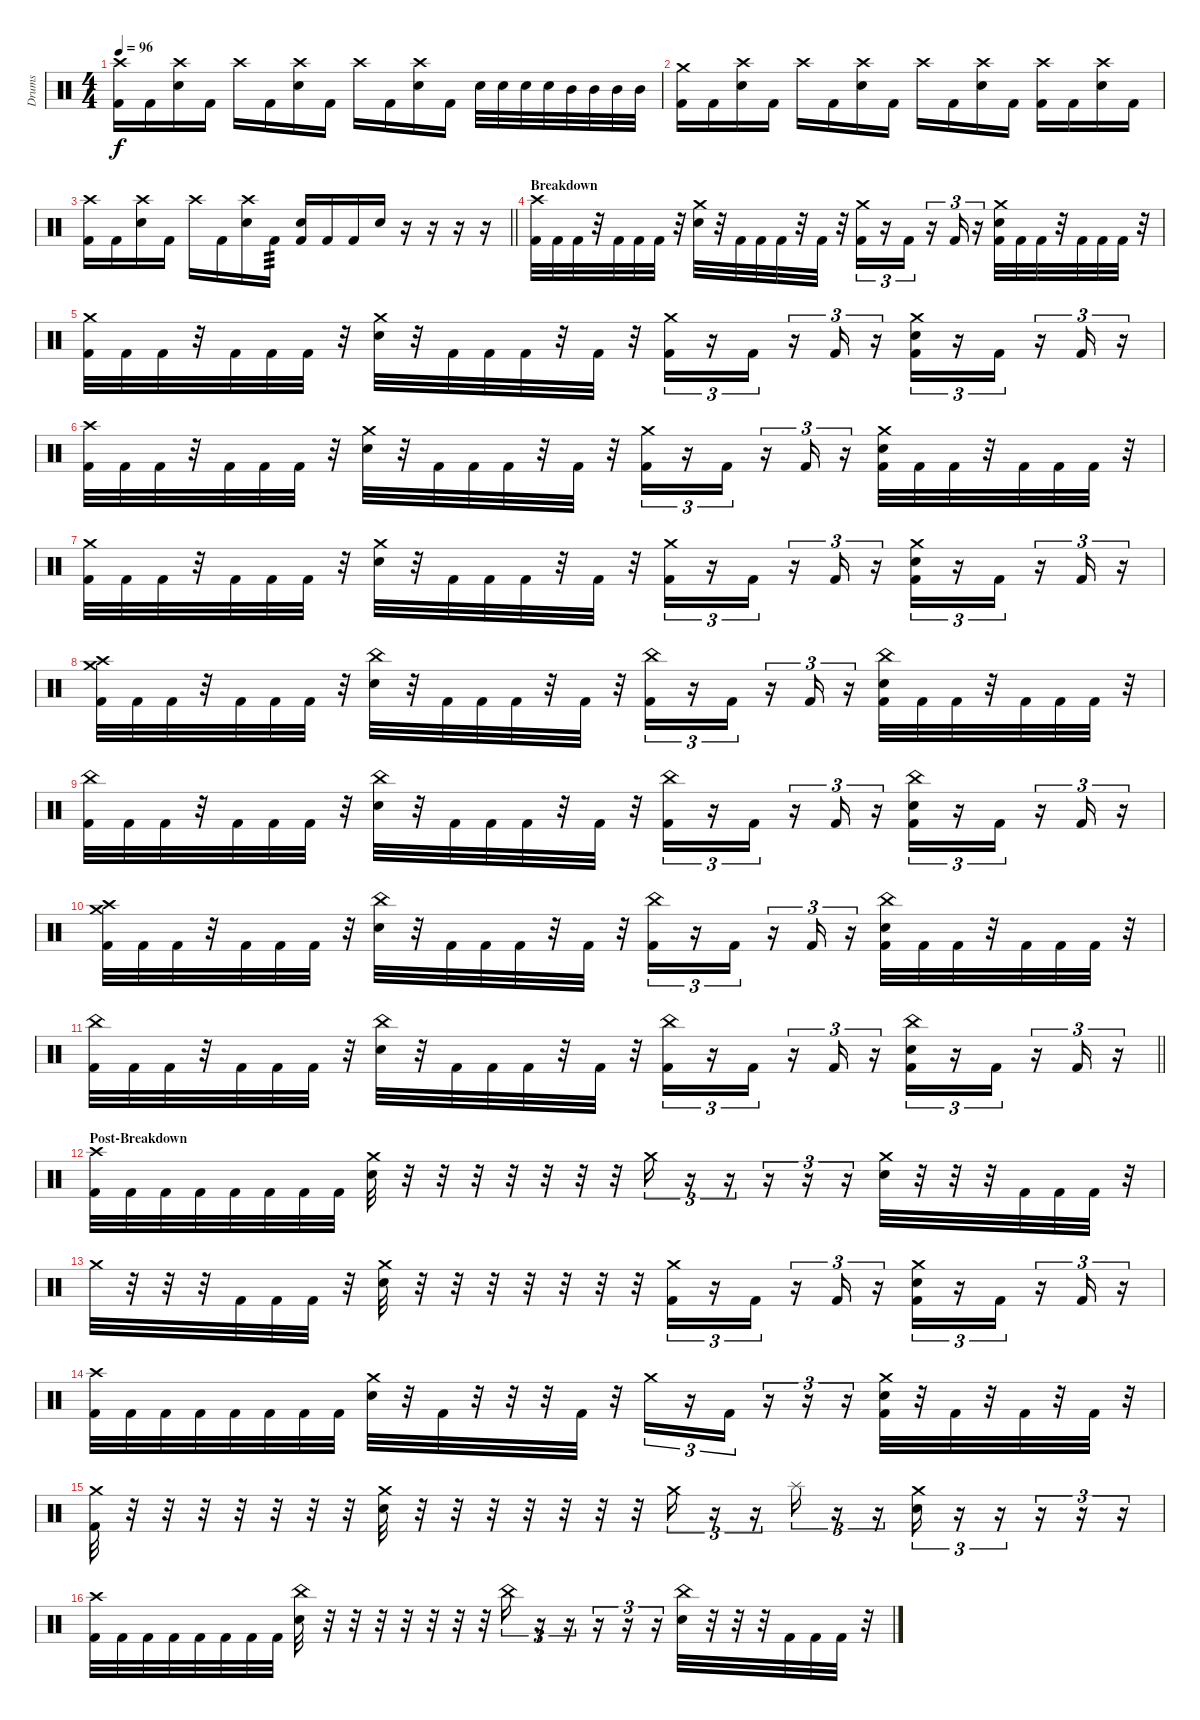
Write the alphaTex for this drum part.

\track ("Drums" "Drums") {instrument percussion}
\staff {score}
\articulation defaults
\ts (4 4)
\tempo 96
\clef neutral
\ks c
("Crash high (hit)" "Kick (hit) 2").16{dy f} "Kick (hit) 2".16 ("Crash high (hit)" "Snare (hit) 2").16 "Kick (hit) 2".16 "Crash high (hit)".16 "Kick (hit) 2".16 ("Crash high (hit)" "Snare (hit) 2").16 "Kick (hit) 2".16 "Crash high (hit)".16 "Kick (hit) 2".16 ("Crash high (hit)" "Snare (hit) 2").16 "Kick (hit) 2".16 "Snare (hit) 2".32 "Snare (hit) 2".32 "Snare (hit) 2".32 "Snare (hit) 2".32 "Mid Tom (hit)".32 "Mid Tom (hit)".32 "Mid Tom (hit)".32 "Mid Tom (hit)".32 |
("Crash medium (hit)" "Kick (hit) 2").16 "Kick (hit) 2".16 ("Crash high (hit)" "Snare (hit) 2").16 "Kick (hit) 2".16 "Crash high (hit)".16 "Kick (hit) 2".16 ("Crash high (hit)" "Snare (hit) 2").16 "Kick (hit) 2".16 "Crash high (hit)".16 "Kick (hit) 2".16 ("Crash high (hit)" "Snare (hit) 2").16 "Kick (hit) 2".16 ("Crash high (hit)" "Kick (hit) 2").16 "Kick (hit) 2".16 ("Crash high (hit)" "Snare (hit) 2").16 "Kick (hit) 2".16 |
\barLineRight lightlight
("Crash high (hit)" "Kick (hit) 2").16 "Kick (hit) 2".16 ("Crash high (hit)" "Snare (hit) 2").16 "Kick (hit) 2".16 "Crash high (hit)".16 "Kick (hit) 2".16 ("Crash high (hit)" "Snare (hit) 2").16 "Kick (hit) 2".16{tp 3} ("Snare (hit) 2" "Kick (hit) 2").16 "Kick (hit) 2".16 "Kick (hit) 2".16 "Snare (hit) 2".16 r.16 r.16 r.16 r.16 |
\section ("" "Breakdown")
("Crash high (hit)" "Kick (hit) 2").32 "Kick (hit) 2".32 "Kick (hit) 2".32 r.32 "Kick (hit) 2".32 "Kick (hit) 2".32 "Kick (hit) 2".32 r.32 ("Crash medium (hit)" "Snare (hit) 2").32 r.32 "Kick (hit) 2".32 "Kick (hit) 2".32 "Kick (hit) 2".32 r.32 "Kick (hit) 2".32 r.32 ("Crash medium (hit)" "Kick (hit) 2").16{tu (3 2)} r.16{tu (3 2)} "Kick (hit) 2".16{tu (3 2)} r.16{tu (3 2)} "Kick (hit) 2".16{tu (3 2)} r.16{tu (3 2)} ("Crash medium (hit)" "Snare (hit) 2" "Kick (hit) 2").32 "Kick (hit) 2".32 "Kick (hit) 2".32 r.32 "Kick (hit) 2".32 "Kick (hit) 2".32 "Kick (hit) 2".32 r.32 |
("Crash medium (hit)" "Kick (hit) 2").32 "Kick (hit) 2".32 "Kick (hit) 2".32 r.32 "Kick (hit) 2".32 "Kick (hit) 2".32 "Kick (hit) 2".32 r.32 ("Crash medium (hit)" "Snare (hit) 2").32 r.32 "Kick (hit) 2".32 "Kick (hit) 2".32 "Kick (hit) 2".32 r.32 "Kick (hit) 2".32 r.32 ("Crash medium (hit)" "Kick (hit) 2").16{tu (3 2)} r.16{tu (3 2)} "Kick (hit) 2".16{tu (3 2)} r.16{tu (3 2)} "Kick (hit) 2".16{tu (3 2)} r.16{tu (3 2)} ("Crash medium (hit)" "Snare (hit) 2" "Kick (hit) 2").16{tu (3 2)} r.16{tu (3 2)} "Kick (hit) 2".16{tu (3 2)} r.16{tu (3 2)} "Kick (hit) 2".16{tu (3 2)} r.16{tu (3 2)} |
("Crash high (hit)" "Kick (hit) 2").32 "Kick (hit) 2".32 "Kick (hit) 2".32 r.32 "Kick (hit) 2".32 "Kick (hit) 2".32 "Kick (hit) 2".32 r.32 ("Crash medium (hit)" "Snare (hit) 2").32 r.32 "Kick (hit) 2".32 "Kick (hit) 2".32 "Kick (hit) 2".32 r.32 "Kick (hit) 2".32 r.32 ("Crash medium (hit)" "Kick (hit) 2").16{tu (3 2)} r.16{tu (3 2)} "Kick (hit) 2".16{tu (3 2)} r.16{tu (3 2)} "Kick (hit) 2".16{tu (3 2)} r.16{tu (3 2)} ("Crash medium (hit)" "Snare (hit) 2" "Kick (hit) 2").32 "Kick (hit) 2".32 "Kick (hit) 2".32 r.32 "Kick (hit) 2".32 "Kick (hit) 2".32 "Kick (hit) 2".32 r.32 |
("Crash medium (hit)" "Kick (hit) 2").32 "Kick (hit) 2".32 "Kick (hit) 2".32 r.32 "Kick (hit) 2".32 "Kick (hit) 2".32 "Kick (hit) 2".32 r.32 ("Crash medium (hit)" "Snare (hit) 2").32 r.32 "Kick (hit) 2".32 "Kick (hit) 2".32 "Kick (hit) 2".32 r.32 "Kick (hit) 2".32 r.32 ("Crash medium (hit)" "Kick (hit) 2").16{tu (3 2)} r.16{tu (3 2)} "Kick (hit) 2".16{tu (3 2)} r.16{tu (3 2)} "Kick (hit) 2".16{tu (3 2)} r.16{tu (3 2)} ("Crash medium (hit)" "Snare (hit) 2" "Kick (hit) 2").16{tu (3 2)} r.16{tu (3 2)} "Kick (hit) 2".16{tu (3 2)} r.16{tu (3 2)} "Kick (hit) 2".16{tu (3 2)} r.16{tu (3 2)} |
("Crash high (hit)" "Crash medium (hit)" "Kick (hit) 2").32 "Kick (hit) 2".32 "Kick (hit) 2".32 r.32 "Kick (hit) 2".32 "Kick (hit) 2".32 "Kick (hit) 2".32 r.32 ("China (hit)" "Snare (hit) 2").32 r.32 "Kick (hit) 2".32 "Kick (hit) 2".32 "Kick (hit) 2".32 r.32 "Kick (hit) 2".32 r.32 ("China (hit)" "Kick (hit) 2").16{tu (3 2)} r.16{tu (3 2)} "Kick (hit) 2".16{tu (3 2)} r.16{tu (3 2)} "Kick (hit) 2".16{tu (3 2)} r.16{tu (3 2)} ("China (hit)" "Snare (hit) 2" "Kick (hit) 2").32 "Kick (hit) 2".32 "Kick (hit) 2".32 r.32 "Kick (hit) 2".32 "Kick (hit) 2".32 "Kick (hit) 2".32 r.32 |
("China (hit)" "Kick (hit) 2").32 "Kick (hit) 2".32 "Kick (hit) 2".32 r.32 "Kick (hit) 2".32 "Kick (hit) 2".32 "Kick (hit) 2".32 r.32 ("China (hit)" "Snare (hit) 2").32 r.32 "Kick (hit) 2".32 "Kick (hit) 2".32 "Kick (hit) 2".32 r.32 "Kick (hit) 2".32 r.32 ("China (hit)" "Kick (hit) 2").16{tu (3 2)} r.16{tu (3 2)} "Kick (hit) 2".16{tu (3 2)} r.16{tu (3 2)} "Kick (hit) 2".16{tu (3 2)} r.16{tu (3 2)} ("China (hit)" "Snare (hit) 2" "Kick (hit) 2").16{tu (3 2)} r.16{tu (3 2)} "Kick (hit) 2".16{tu (3 2)} r.16{tu (3 2)} "Kick (hit) 2".16{tu (3 2)} r.16{tu (3 2)} |
("Crash high (hit)" "Crash medium (hit)" "Kick (hit) 2").32 "Kick (hit) 2".32 "Kick (hit) 2".32 r.32 "Kick (hit) 2".32 "Kick (hit) 2".32 "Kick (hit) 2".32 r.32 ("China (hit)" "Snare (hit) 2").32 r.32 "Kick (hit) 2".32 "Kick (hit) 2".32 "Kick (hit) 2".32 r.32 "Kick (hit) 2".32 r.32 ("China (hit)" "Kick (hit) 2").16{tu (3 2)} r.16{tu (3 2)} "Kick (hit) 2".16{tu (3 2)} r.16{tu (3 2)} "Kick (hit) 2".16{tu (3 2)} r.16{tu (3 2)} ("China (hit)" "Snare (hit) 2" "Kick (hit) 2").32 "Kick (hit) 2".32 "Kick (hit) 2".32 r.32 "Kick (hit) 2".32 "Kick (hit) 2".32 "Kick (hit) 2".32 r.32 |
\barLineRight lightlight
("China (hit)" "Kick (hit) 2").32 "Kick (hit) 2".32 "Kick (hit) 2".32 r.32 "Kick (hit) 2".32 "Kick (hit) 2".32 "Kick (hit) 2".32 r.32 ("China (hit)" "Snare (hit) 2").32 r.32 "Kick (hit) 2".32 "Kick (hit) 2".32 "Kick (hit) 2".32 r.32 "Kick (hit) 2".32 r.32 ("China (hit)" "Kick (hit) 2").16{tu (3 2)} r.16{tu (3 2)} "Kick (hit) 2".16{tu (3 2)} r.16{tu (3 2)} "Kick (hit) 2".16{tu (3 2)} r.16{tu (3 2)} ("China (hit)" "Snare (hit) 2" "Kick (hit) 2").16{tu (3 2)} r.16{tu (3 2)} "Kick (hit) 2".16{tu (3 2)} r.16{tu (3 2)} "Kick (hit) 2".16{tu (3 2)} r.16{tu (3 2)} |
\section ("" "Post-Breakdown")
("Crash high (hit)" "Kick (hit) 2").32 "Kick (hit) 2".32 "Kick (hit) 2".32 "Kick (hit) 2".32 "Kick (hit) 2".32 "Kick (hit) 2".32 "Kick (hit) 2".32 "Kick (hit) 2".32 ("Crash medium (hit)" "Snare (hit) 2").32 r.32 r.32 r.32 r.32 r.32 r.32 r.32 "Crash medium (hit)".16{tu (3 2)} r.16{tu (3 2)} r.16{tu (3 2)} r.16{tu (3 2)} r.16{tu (3 2)} r.16{tu (3 2)} ("Crash medium (hit)" "Snare (hit) 2").32 r.32 r.32 r.32 "Kick (hit) 2".32 "Kick (hit) 2".32 "Kick (hit) 2".32 r.32 |
"Crash medium (hit)".32 r.32 r.32 r.32 "Kick (hit) 2".32 "Kick (hit) 2".32 "Kick (hit) 2".32 r.32 ("Crash medium (hit)" "Snare (hit) 2").32 r.32 r.32 r.32 r.32 r.32 r.32 r.32 ("Crash medium (hit)" "Kick (hit) 2").16{tu (3 2)} r.16{tu (3 2)} "Kick (hit) 2".16{tu (3 2)} r.16{tu (3 2)} "Kick (hit) 2".16{tu (3 2)} r.16{tu (3 2)} ("Crash medium (hit)" "Snare (hit) 2" "Kick (hit) 2").16{tu (3 2)} r.16{tu (3 2)} "Kick (hit) 2".16{tu (3 2)} r.16{tu (3 2)} "Kick (hit) 2".16{tu (3 2)} r.16{tu (3 2)} |
("Crash high (hit)" "Kick (hit) 2").32 "Kick (hit) 2".32 "Kick (hit) 2".32 "Kick (hit) 2".32 "Kick (hit) 2".32 "Kick (hit) 2".32 "Kick (hit) 2".32 "Kick (hit) 2".32 ("Crash medium (hit)" "Snare (hit) 2").32 r.32 "Kick (hit) 2".32 r.32 r.32 r.32 "Kick (hit) 2".32 r.32 "Crash medium (hit)".16{tu (3 2)} r.16{tu (3 2)} "Kick (hit) 2".16{tu (3 2)} r.16{tu (3 2)} r.16{tu (3 2)} r.16{tu (3 2)} ("Crash medium (hit)" "Snare (hit) 2" "Kick (hit) 2").32 r.32 "Kick (hit) 2".32 r.32 "Kick (hit) 2".32 r.32 "Kick (hit) 2".32 r.32 |
("Crash medium (hit)" "Kick (hit) 2").32 r.32 r.32 r.32 r.32 r.32 r.32 r.32 ("Crash medium (hit)" "Snare (hit) 2").32 r.32 r.32 r.32 r.32 r.32 r.32 r.32 "Crash medium (hit)".16{tu (3 2)} r.16{tu (3 2)} r.16{tu (3 2)} "Splash (hit)".16{tu (3 2)} r.16{tu (3 2)} r.16{tu (3 2)} ("Crash medium (hit)" "Snare (hit) 2").16{tu (3 2)} r.16{tu (3 2)} r.16{tu (3 2)} r.16{tu (3 2)} r.16{tu (3 2)} r.16{tu (3 2)} |
("Crash high (hit)" "Kick (hit) 2").32 "Kick (hit) 2".32 "Kick (hit) 2".32 "Kick (hit) 2".32 "Kick (hit) 2".32 "Kick (hit) 2".32 "Kick (hit) 2".32 "Kick (hit) 2".32 ("China (hit)" "Snare (hit) 2").32 r.32 r.32 r.32 r.32 r.32 r.32 r.32 "China (hit)".16{tu (3 2)} r.16{tu (3 2)} r.16{tu (3 2)} r.16{tu (3 2)} r.16{tu (3 2)} r.16{tu (3 2)} ("China (hit)" "Snare (hit) 2").32 r.32 r.32 r.32 "Kick (hit) 2".32 "Kick (hit) 2".32 "Kick (hit) 2".32 r.32
